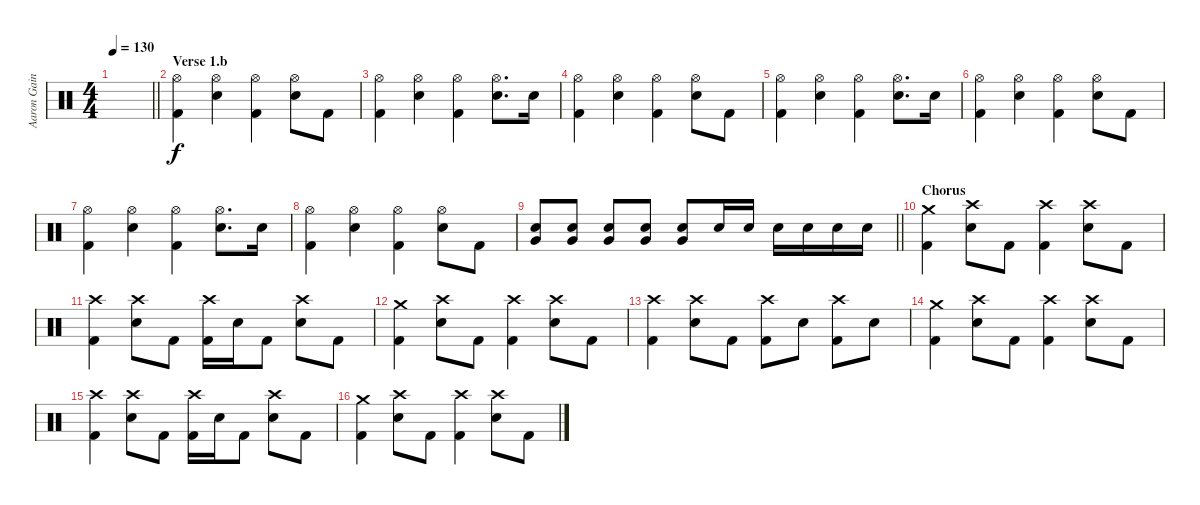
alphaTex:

\track ("Aaron Gainer - Drums" "Aaron Gain") {instrument percussion}
\staff {score}
\articulation defaults
\ts (4 4)
\tempo 130
\clef neutral
\barLineRight lightlight
\ks c
|
\section ("" "Verse 1.b")
("Hi-Hat (open)" "Kick (hit) 2").4 ("Hi-Hat (open)" "Snare (hit) 2").4 ("Hi-Hat (open)" "Kick (hit) 2").4 ("Hi-Hat (open)" "Snare (hit) 2").8 "Kick (hit) 2".8 |
("Hi-Hat (open)" "Kick (hit) 2").4 ("Hi-Hat (open)" "Snare (hit) 2").4 ("Hi-Hat (open)" "Kick (hit) 2").4 ("Hi-Hat (open)" "Snare (hit) 2").8{d} "Snare (hit) 2".16 |
("Hi-Hat (open)" "Kick (hit) 2").4 ("Hi-Hat (open)" "Snare (hit) 2").4 ("Hi-Hat (open)" "Kick (hit) 2").4 ("Hi-Hat (open)" "Snare (hit) 2").8 "Kick (hit) 2".8 |
("Hi-Hat (open)" "Kick (hit) 2").4 ("Hi-Hat (open)" "Snare (hit) 2").4 ("Hi-Hat (open)" "Kick (hit) 2").4 ("Hi-Hat (open)" "Snare (hit) 2").8{d} "Snare (hit) 2".16 |
("Hi-Hat (open)" "Kick (hit) 2").4 ("Hi-Hat (open)" "Snare (hit) 2").4 ("Hi-Hat (open)" "Kick (hit) 2").4 ("Hi-Hat (open)" "Snare (hit) 2").8 "Kick (hit) 2".8 |
("Hi-Hat (open)" "Kick (hit) 2").4 ("Hi-Hat (open)" "Snare (hit) 2").4 ("Hi-Hat (open)" "Kick (hit) 2").4 ("Hi-Hat (open)" "Snare (hit) 2").8{d} "Snare (hit) 2".16 |
("Hi-Hat (open)" "Kick (hit) 2").4 ("Hi-Hat (open)" "Snare (hit) 2").4 ("Hi-Hat (open)" "Kick (hit) 2").4 ("Hi-Hat (open)" "Snare (hit) 2").8 "Kick (hit) 2".8 |
\barLineRight lightlight
("Snare (hit) 2" "Very Low Tom (hit)").8 ("Snare (hit) 2" "Very Low Tom (hit)").8 ("Snare (hit) 2" "Very Low Tom (hit)").8 ("Snare (hit) 2" "Very Low Tom (hit)").8 ("Snare (hit) 2" "Very Low Tom (hit)").8 "Snare (hit) 2".16 "Snare (hit) 2".16 "Snare (hit) 2".16 "Snare (hit) 2".16 "Snare (hit) 2".16 "Snare (hit) 2".16 |
\section ("" "Chorus")
("Crash medium (hit)" "Kick (hit) 2").4 ("Crash high (hit)" "Snare (hit) 2").8 "Kick (hit) 2".8 ("Crash high (hit)" "Kick (hit) 2").4 ("Crash high (hit)" "Snare (hit) 2").8 "Kick (hit) 2".8 |
("Crash high (hit)" "Kick (hit) 2").4 ("Crash high (hit)" "Snare (hit) 2").8 "Kick (hit) 2".8 ("Crash high (hit)" "Kick (hit) 2").16 "Snare (hit) 2".16 "Kick (hit) 2".8 ("Crash high (hit)" "Snare (hit) 2").8 "Kick (hit) 2".8 |
("Crash medium (hit)" "Kick (hit) 2").4 ("Crash high (hit)" "Snare (hit) 2").8 "Kick (hit) 2".8 ("Crash high (hit)" "Kick (hit) 2").4 ("Crash high (hit)" "Snare (hit) 2").8 "Kick (hit) 2".8 |
("Crash high (hit)" "Kick (hit) 2").4 ("Crash high (hit)" "Snare (hit) 2").8 "Kick (hit) 2".8 ("Crash high (hit)" "Kick (hit) 2").8 "Snare (hit) 2".8 ("Crash high (hit)" "Kick (hit) 2").8 "Snare (hit) 2".8 |
("Crash medium (hit)" "Kick (hit) 2").4 ("Crash high (hit)" "Snare (hit) 2").8 "Kick (hit) 2".8 ("Crash high (hit)" "Kick (hit) 2").4 ("Crash high (hit)" "Snare (hit) 2").8 "Kick (hit) 2".8 |
("Crash high (hit)" "Kick (hit) 2").4 ("Crash high (hit)" "Snare (hit) 2").8 "Kick (hit) 2".8 ("Crash high (hit)" "Kick (hit) 2").16 "Snare (hit) 2".16 "Kick (hit) 2".8 ("Crash high (hit)" "Snare (hit) 2").8 "Kick (hit) 2".8 |
("Crash medium (hit)" "Kick (hit) 2").4 ("Crash high (hit)" "Snare (hit) 2").8 "Kick (hit) 2".8 ("Crash high (hit)" "Kick (hit) 2").4 ("Crash high (hit)" "Snare (hit) 2").8 "Kick (hit) 2".8
